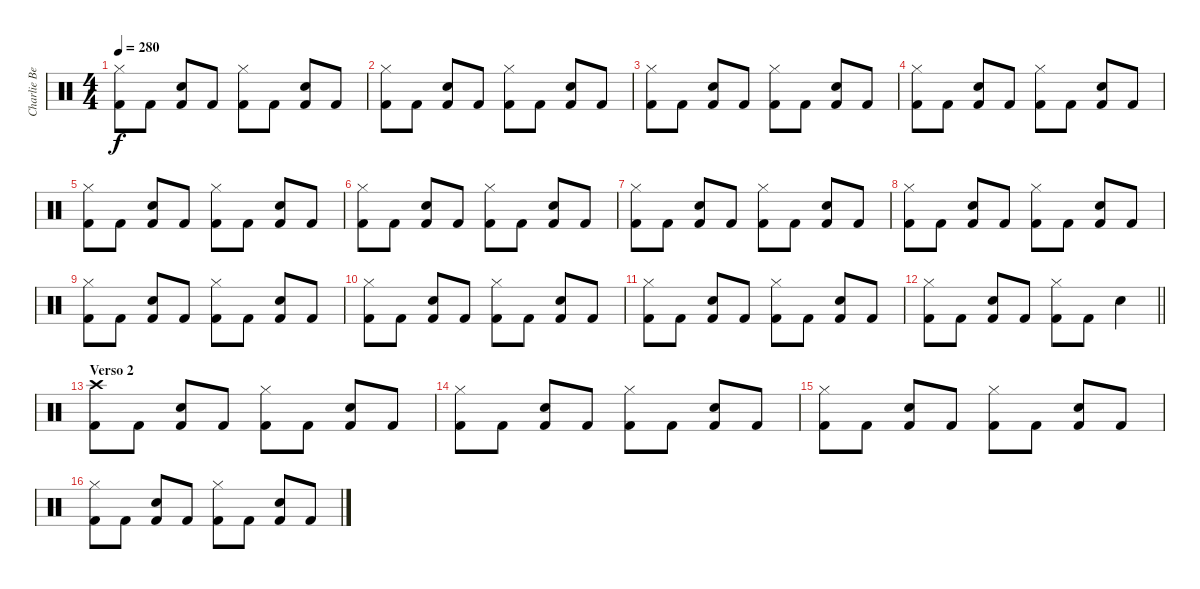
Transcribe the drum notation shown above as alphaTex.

\track ("Charlie Benante" "Charlie Be") {instrument percussion}
\staff {score}
\articulation defaults
\ts (4 4)
\tempo 280
\clef neutral
\ks c
("Hi-Hat (closed)" "Kick (hit) 2").8{dy f} "Kick (hit) 2".8 ("Snare (hit) 2" "Kick (hit) 2").8 "Kick (hit) 2".8 ("Hi-Hat (closed)" "Kick (hit) 2").8 "Kick (hit) 2".8 ("Snare (hit) 2" "Kick (hit) 2").8 "Kick (hit) 2".8 |
("Hi-Hat (closed)" "Kick (hit) 2").8 "Kick (hit) 2".8 ("Snare (hit) 2" "Kick (hit) 2").8 "Kick (hit) 2".8 ("Hi-Hat (closed)" "Kick (hit) 2").8 "Kick (hit) 2".8 ("Snare (hit) 2" "Kick (hit) 2").8 "Kick (hit) 2".8 |
("Hi-Hat (closed)" "Kick (hit) 2").8 "Kick (hit) 2".8 ("Snare (hit) 2" "Kick (hit) 2").8 "Kick (hit) 2".8 ("Hi-Hat (closed)" "Kick (hit) 2").8 "Kick (hit) 2".8 ("Snare (hit) 2" "Kick (hit) 2").8 "Kick (hit) 2".8 |
("Hi-Hat (closed)" "Kick (hit) 2").8 "Kick (hit) 2".8 ("Snare (hit) 2" "Kick (hit) 2").8 "Kick (hit) 2".8 ("Hi-Hat (closed)" "Kick (hit) 2").8 "Kick (hit) 2".8 ("Snare (hit) 2" "Kick (hit) 2").8 "Kick (hit) 2".8 |
("Hi-Hat (closed)" "Kick (hit) 2").8 "Kick (hit) 2".8 ("Snare (hit) 2" "Kick (hit) 2").8 "Kick (hit) 2".8 ("Hi-Hat (closed)" "Kick (hit) 2").8 "Kick (hit) 2".8 ("Snare (hit) 2" "Kick (hit) 2").8 "Kick (hit) 2".8 |
("Hi-Hat (closed)" "Kick (hit) 2").8 "Kick (hit) 2".8 ("Snare (hit) 2" "Kick (hit) 2").8 "Kick (hit) 2".8 ("Hi-Hat (closed)" "Kick (hit) 2").8 "Kick (hit) 2".8 ("Snare (hit) 2" "Kick (hit) 2").8 "Kick (hit) 2".8 |
("Hi-Hat (closed)" "Kick (hit) 2").8 "Kick (hit) 2".8 ("Snare (hit) 2" "Kick (hit) 2").8 "Kick (hit) 2".8 ("Hi-Hat (closed)" "Kick (hit) 2").8 "Kick (hit) 2".8 ("Snare (hit) 2" "Kick (hit) 2").8 "Kick (hit) 2".8 |
("Hi-Hat (closed)" "Kick (hit) 2").8 "Kick (hit) 2".8 ("Snare (hit) 2" "Kick (hit) 2").8 "Kick (hit) 2".8 ("Hi-Hat (closed)" "Kick (hit) 2").8 "Kick (hit) 2".8 ("Snare (hit) 2" "Kick (hit) 2").8 "Kick (hit) 2".8 |
("Hi-Hat (closed)" "Kick (hit) 2").8 "Kick (hit) 2".8 ("Snare (hit) 2" "Kick (hit) 2").8 "Kick (hit) 2".8 ("Hi-Hat (closed)" "Kick (hit) 2").8 "Kick (hit) 2".8 ("Snare (hit) 2" "Kick (hit) 2").8 "Kick (hit) 2".8 |
("Hi-Hat (closed)" "Kick (hit) 2").8 "Kick (hit) 2".8 ("Snare (hit) 2" "Kick (hit) 2").8 "Kick (hit) 2".8 ("Hi-Hat (closed)" "Kick (hit) 2").8 "Kick (hit) 2".8 ("Snare (hit) 2" "Kick (hit) 2").8 "Kick (hit) 2".8 |
("Hi-Hat (closed)" "Kick (hit) 2").8 "Kick (hit) 2".8 ("Snare (hit) 2" "Kick (hit) 2").8 "Kick (hit) 2".8 ("Hi-Hat (closed)" "Kick (hit) 2").8 "Kick (hit) 2".8 ("Snare (hit) 2" "Kick (hit) 2").8 "Kick (hit) 2".8 |
\barLineRight lightlight
("Hi-Hat (closed)" "Kick (hit) 2").8 "Kick (hit) 2".8 ("Snare (hit) 2" "Kick (hit) 2").8 "Kick (hit) 2".8 ("Hi-Hat (closed)" "Kick (hit) 2").8 "Kick (hit) 2".8 "Snare (hit) 2".4 |
\section ("" "Verso 2")
("Crash high (hit)" "Kick (hit) 2").8 "Kick (hit) 2".8 ("Snare (hit) 2" "Kick (hit) 2").8 "Kick (hit) 2".8 ("Hi-Hat (closed)" "Kick (hit) 2").8 "Kick (hit) 2".8 ("Snare (hit) 2" "Kick (hit) 2").8 "Kick (hit) 2".8 |
("Hi-Hat (closed)" "Kick (hit) 2").8 "Kick (hit) 2".8 ("Snare (hit) 2" "Kick (hit) 2").8 "Kick (hit) 2".8 ("Hi-Hat (closed)" "Kick (hit) 2").8 "Kick (hit) 2".8 ("Snare (hit) 2" "Kick (hit) 2").8 "Kick (hit) 2".8 |
("Hi-Hat (closed)" "Kick (hit) 2").8 "Kick (hit) 2".8 ("Snare (hit) 2" "Kick (hit) 2").8 "Kick (hit) 2".8 ("Hi-Hat (closed)" "Kick (hit) 2").8 "Kick (hit) 2".8 ("Snare (hit) 2" "Kick (hit) 2").8 "Kick (hit) 2".8 |
("Hi-Hat (closed)" "Kick (hit) 2").8 "Kick (hit) 2".8 ("Snare (hit) 2" "Kick (hit) 2").8 "Kick (hit) 2".8 ("Hi-Hat (closed)" "Kick (hit) 2").8 "Kick (hit) 2".8 ("Snare (hit) 2" "Kick (hit) 2").8 "Kick (hit) 2".8
